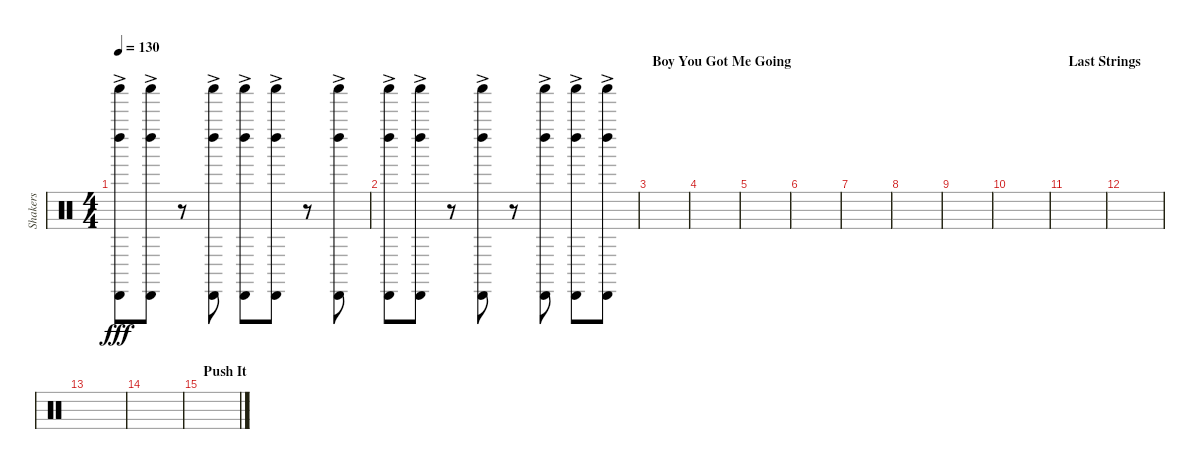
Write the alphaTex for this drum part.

\track ("Shakers" "Shakers") {instrument percussion}
\staff {score}
\articulation defaults
\ts (4 4)
\tempo 130
\clef neutral
\ks c
("Cabasa (hit)"{ac} "Left Maraca (hit)"{ac} "Shaker (hit)"{ac}).8{dy fff} ("Cabasa (hit)"{ac} "Left Maraca (hit)"{ac} "Shaker (hit)"{ac}).8 r.8 ("Cabasa (hit)"{ac} "Left Maraca (hit)"{ac} "Shaker (hit)"{ac}).8 ("Cabasa (hit)"{ac} "Left Maraca (hit)"{ac} "Shaker (hit)"{ac}).8 ("Cabasa (hit)"{ac} "Left Maraca (hit)"{ac} "Shaker (hit)"{ac}).8 r.8 ("Cabasa (hit)"{ac} "Left Maraca (hit)"{ac} "Shaker (hit)"{ac}).8 |
("Cabasa (hit)"{ac} "Left Maraca (hit)"{ac} "Shaker (hit)"{ac}).8 ("Cabasa (hit)"{ac} "Left Maraca (hit)"{ac} "Shaker (hit)"{ac}).8 r.8 ("Cabasa (hit)"{ac} "Left Maraca (hit)"{ac} "Shaker (hit)"{ac}).8 r.8 ("Cabasa (hit)"{ac} "Left Maraca (hit)"{ac} "Shaker (hit)"{ac}).8 ("Cabasa (hit)"{ac} "Left Maraca (hit)"{ac} "Shaker (hit)"{ac}).8 ("Cabasa (hit)"{ac} "Left Maraca (hit)"{ac} "Shaker (hit)"{ac}).8 |
\section ("" "Boy You Got Me Going")
|
|
|
|
|
|
|
|
\section ("" "Last Strings")
|
|
|
|
\section ("" "Push It")
